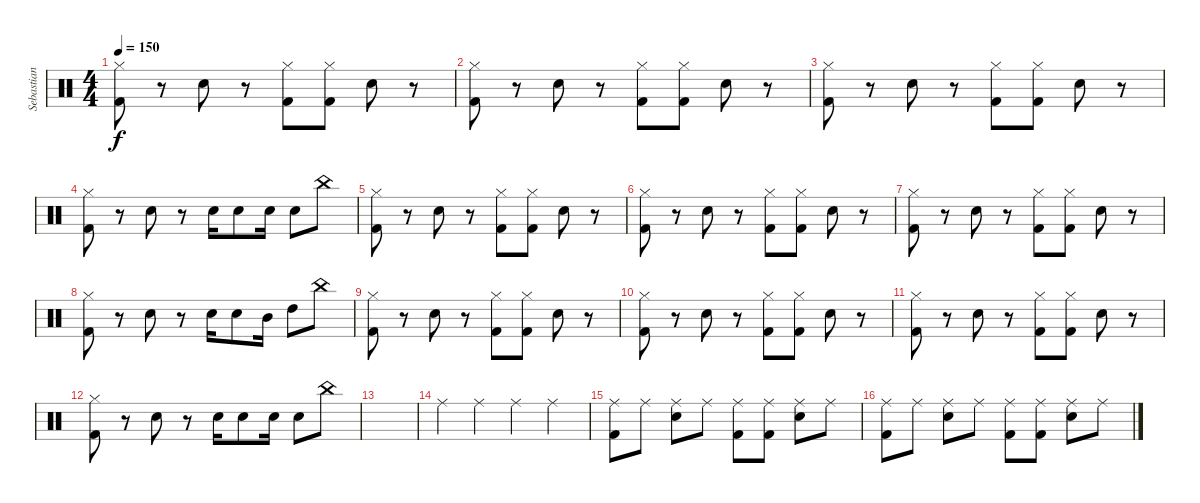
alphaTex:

\track ("Sebastian" "Sebastian") {instrument percussion}
\staff {score}
\articulation defaults
\ts (4 4)
\tempo 150
\clef neutral
\ks c
("Kick (hit) 2" "Hi-Hat (closed)").8{dy f} r.8 "Electric Snare (hit)".8 r.8 ("Kick (hit) 2" "Hi-Hat (closed)").8 ("Kick (hit) 2" "Hi-Hat (closed)").8 "Electric Snare (hit)".8 r.8 |
("Kick (hit) 2" "Hi-Hat (closed)").8 r.8 "Electric Snare (hit)".8 r.8 ("Kick (hit) 2" "Hi-Hat (closed)").8 ("Kick (hit) 2" "Hi-Hat (closed)").8 "Electric Snare (hit)".8 r.8 |
("Kick (hit) 2" "Hi-Hat (closed)").8 r.8 "Electric Snare (hit)".8 r.8 ("Kick (hit) 2" "Hi-Hat (closed)").8 ("Kick (hit) 2" "Hi-Hat (closed)").8 "Electric Snare (hit)".8 r.8 |
("Kick (hit) 2" "Hi-Hat (closed)").8 r.8 "Electric Snare (hit)".8 r.8 "Electric Snare (hit)".16 "Electric Snare (hit)".8 "Electric Snare (hit)".16 "Electric Snare (hit)".8 "China (hit)".8 |
("Kick (hit) 2" "Hi-Hat (closed)").8 r.8 "Electric Snare (hit)".8 r.8 ("Kick (hit) 2" "Hi-Hat (closed)").8 ("Kick (hit) 2" "Hi-Hat (closed)").8 "Electric Snare (hit)".8 r.8 |
("Kick (hit) 2" "Hi-Hat (closed)").8 r.8 "Electric Snare (hit)".8 r.8 ("Kick (hit) 2" "Hi-Hat (closed)").8 ("Kick (hit) 2" "Hi-Hat (closed)").8 "Electric Snare (hit)".8 r.8 |
("Kick (hit) 2" "Hi-Hat (closed)").8 r.8 "Electric Snare (hit)".8 r.8 ("Kick (hit) 2" "Hi-Hat (closed)").8 ("Kick (hit) 2" "Hi-Hat (closed)").8 "Electric Snare (hit)".8 r.8 |
("Kick (hit) 2" "Hi-Hat (closed)").8 r.8 "Electric Snare (hit)".8 r.8 "Electric Snare (hit)".16 "Electric Snare (hit)".8 "Mid Tom (hit)".16 "High Tom (hit)".8 "China (hit)".8 |
("Kick (hit) 2" "Hi-Hat (closed)").8 r.8 "Electric Snare (hit)".8 r.8 ("Kick (hit) 2" "Hi-Hat (closed)").8 ("Kick (hit) 2" "Hi-Hat (closed)").8 "Electric Snare (hit)".8 r.8 |
("Kick (hit) 2" "Hi-Hat (closed)").8 r.8 "Electric Snare (hit)".8 r.8 ("Kick (hit) 2" "Hi-Hat (closed)").8 ("Kick (hit) 2" "Hi-Hat (closed)").8 "Electric Snare (hit)".8 r.8 |
("Kick (hit) 2" "Hi-Hat (closed)").8 r.8 "Electric Snare (hit)".8 r.8 ("Kick (hit) 2" "Hi-Hat (closed)").8 ("Kick (hit) 2" "Hi-Hat (closed)").8 "Electric Snare (hit)".8 r.8 |
("Kick (hit) 2" "Hi-Hat (closed)").8 r.8 "Electric Snare (hit)".8 r.8 "Electric Snare (hit)".16 "Electric Snare (hit)".8 "Electric Snare (hit)".16 "Electric Snare (hit)".8 "China (hit)".8 |
|
"Ride (middle)".4 "Ride (middle)".4 "Ride (middle)".4 "Ride (middle)".4 |
("Kick (hit) 2" "Ride (middle)").8 "Ride (middle)".8 ("Electric Snare (hit)" "Ride (middle)").8 "Ride (middle)".8 ("Kick (hit) 2" "Ride (middle)").8 ("Kick (hit) 2" "Ride (middle)").8 ("Electric Snare (hit)" "Ride (middle)").8 "Ride (middle)".8 |
("Kick (hit) 2" "Ride (middle)").8 "Ride (middle)".8 ("Electric Snare (hit)" "Ride (middle)").8 "Ride (middle)".8 ("Kick (hit) 2" "Ride (middle)").8 ("Kick (hit) 2" "Ride (middle)").8 ("Electric Snare (hit)" "Ride (middle)").8 "Ride (middle)".8
